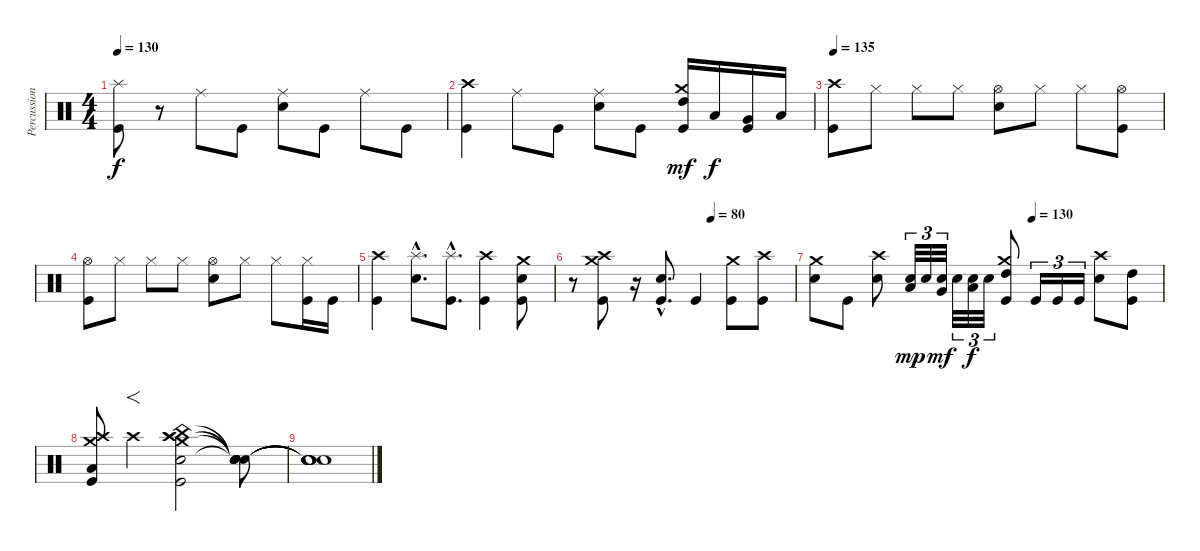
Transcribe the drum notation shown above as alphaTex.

\track ("Percussion" "Percussion") {instrument percussion}
\staff {score}
\articulation defaults
\ts (4 4)
\tempo 130
\clef neutral
\ks c
("Splash (hit)" "Kick (hit)").8{dy f} r.8 "Ride (middle)".8 "Kick (hit)".8 ("Ride (middle)" "Electric Snare (hit)").8 "Kick (hit)".8 "Ride (middle)".8 "Kick (hit)".8 |
("Crash high (hit)" "Kick (hit)").4 "Ride (middle)".8 "Kick (hit)".8 ("Ride (middle)" "Electric Snare (hit)").8 "Kick (hit)".8 ("Crash medium (hit)" "High Tom (hit)" "Kick (hit)").16{dy mf} "Low Tom (hit)".16{dy f} ("Very Low Tom (hit)" "Kick (hit)").16 "Low Floor Tom (hit)".16 |
\tempo 135
("Crash high (hit)" "Kick (hit)").8 "Hi-Hat (closed)".8 "Hi-Hat (closed)".8 "Hi-Hat (closed)".8 ("Hi-Hat (open)" "Electric Snare (hit)").8 "Hi-Hat (closed)".8 "Hi-Hat (closed)".8 ("Hi-Hat (open)" "Kick (hit)").8 |
("Hi-Hat (open)" "Kick (hit)").8 "Hi-Hat (closed)".8 "Hi-Hat (closed)".8 "Hi-Hat (closed)".8 ("Hi-Hat (open)" "Electric Snare (hit)").8 "Hi-Hat (closed)".8 "Hi-Hat (closed)".8 ("Hi-Hat (closed)" "Kick (hit)").16 "Kick (hit)".16 |
("Crash high (hit)" "Kick (hit)").4 ("Splash (hit)"{hac} "Electric Snare (hit)"{hac}).8{d} ("Splash (hit)"{hac} "Kick (hit)"{hac}).8{d} ("Crash high (hit)" "Kick (hit)").4 ("Crash medium (hit)" "Electric Snare (hit)" "Kick (hit)").8 |
\tempo (80 0.625)
r.8 ("Crash high (hit)" "Crash medium (hit)" "Kick (hit)").8 r.16 ("Electric Snare (hit)"{hac} "Kick (hit)"{hac}).8{d} "Kick (hit)".4 ("Crash medium (hit)" "Kick (hit)").8 ("Crash high (hit)" "Kick (hit)").8 |
\tempo (130 0.625)
("Crash medium (hit)" "Electric Snare (hit)").8 "Kick (hit)".8 ("Crash high (hit)" "Electric Snare (hit)").8 ("Low Floor Tom (hit)" "Electric Snare (hit)").32{tu (3 2) dy mp} "Electric Snare (hit)".32{tu (3 2)} ("Very Low Tom (hit)" "Electric Snare (hit)").32{tu (3 2) dy mf} "Electric Snare (hit)".32{tu (3 2)} ("Low Tom (hit)" "Electric Snare (hit)").32{tu (3 2) dy f} "Electric Snare (hit)".32{tu (3 2)} ("Crash medium (hit)" "High Tom (hit)" "Kick (hit)").8 "Kick (hit)".16{tu (3 2)} "Kick (hit)".16{tu (3 2)} "Kick (hit)".16{tu (3 2)} ("Crash high (hit)" "Electric Snare (hit)").8 ("High Tom (hit)" "Kick (hit)").8 |
("Crash high (hit)" "Crash medium (hit)" "Low Tom (hit)" "Kick (hit)").8 "Crash high (hit)".4{f} ("Crash high (hit)" "Crash medium (hit)" "Crash high (hit)" "China (hit)" "Electric Snare (hit)" "Kick (hit)").2{bd 240} ("Snare (hit)"{t} "Snare (hit)"{t} "Snare (hit)"{t} "Snare (hit)"{t} "Snare (hit)"{t}).8 |
("Snare (hit)"{t} "Snare (hit)"{t} "Snare (hit)"{t} "Snare (hit)"{t} "Snare (hit)"{t}).1
